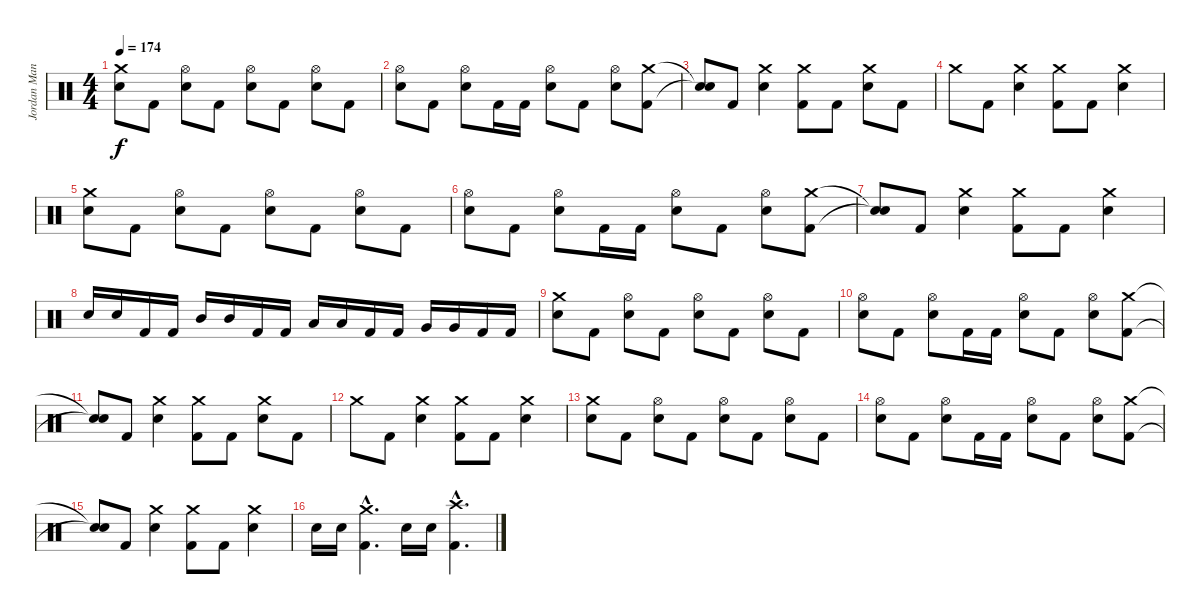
\track ("Jordan Manchino (Drums)" "Jordan Man") {instrument percussion}
\staff {score}
\articulation defaults
\ts (4 4)
\tempo 174
\clef neutral
\ks c
("Crash medium (hit)" "Snare (hit) 2").8{dy f} "Kick (hit) 2".8 ("Hi-Hat (open)" "Snare (hit) 2").8 "Kick (hit) 2".8 ("Hi-Hat (open)" "Snare (hit) 2").8 "Kick (hit) 2".8 ("Hi-Hat (open)" "Snare (hit) 2").8 "Kick (hit) 2".8 |
("Hi-Hat (open)" "Snare (hit) 2").8 "Kick (hit) 2".8 ("Hi-Hat (open)" "Snare (hit) 2").8 "Kick (hit) 2".16 "Kick (hit) 2".16 ("Hi-Hat (open)" "Snare (hit) 2").8 "Kick (hit) 2".8 ("Hi-Hat (open)" "Snare (hit) 2").8 ("Crash medium (hit)" "Kick (hit) 2").8 |
("Snare (hit)"{t} "Snare (hit)"{t}).8 "Kick (hit) 2".8 ("Crash medium (hit)" "Snare (hit) 2").4 ("Crash medium (hit)" "Kick (hit) 2").8 "Kick (hit) 2".8 ("Crash medium (hit)" "Snare (hit) 2").8 "Kick (hit) 2".8 |
"Crash medium (hit)".8 "Kick (hit) 2".8 ("Crash medium (hit)" "Snare (hit) 2").4 ("Crash medium (hit)" "Kick (hit) 2").8 "Kick (hit) 2".8 ("Crash medium (hit)" "Snare (hit) 2").4 |
("Crash medium (hit)" "Snare (hit) 2").8 "Kick (hit) 2".8 ("Hi-Hat (open)" "Snare (hit) 2").8 "Kick (hit) 2".8 ("Hi-Hat (open)" "Snare (hit) 2").8 "Kick (hit) 2".8 ("Hi-Hat (open)" "Snare (hit) 2").8 "Kick (hit) 2".8 |
("Hi-Hat (open)" "Snare (hit) 2").8 "Kick (hit) 2".8 ("Hi-Hat (open)" "Snare (hit) 2").8 "Kick (hit) 2".16 "Kick (hit) 2".16 ("Hi-Hat (open)" "Snare (hit) 2").8 "Kick (hit) 2".8 ("Hi-Hat (open)" "Snare (hit) 2").8 ("Crash medium (hit)" "Kick (hit) 2").8 |
("Snare (hit)"{t} "Snare (hit)"{t}).8 "Kick (hit) 2".8 ("Crash medium (hit)" "Snare (hit) 2").4 ("Crash medium (hit)" "Kick (hit) 2").8 "Kick (hit) 2".8 ("Crash medium (hit)" "Snare (hit) 2").4 |
"Snare (hit) 2".16 "Snare (hit) 2".16 "Kick (hit) 2".16 "Kick (hit) 2".16 "Mid Tom (hit)".16 "Mid Tom (hit)".16 "Kick (hit) 2".16 "Kick (hit) 2".16 "Low Tom (hit)".16 "Low Tom (hit)".16 "Kick (hit) 2".16 "Kick (hit) 2".16 "Very Low Tom (hit)".16 "Very Low Tom (hit)".16 "Kick (hit) 2".16 "Kick (hit) 2".16 |
("Crash medium (hit)" "Snare (hit) 2").8 "Kick (hit) 2".8 ("Hi-Hat (open)" "Snare (hit) 2").8 "Kick (hit) 2".8 ("Hi-Hat (open)" "Snare (hit) 2").8 "Kick (hit) 2".8 ("Hi-Hat (open)" "Snare (hit) 2").8 "Kick (hit) 2".8 |
("Hi-Hat (open)" "Snare (hit) 2").8 "Kick (hit) 2".8 ("Hi-Hat (open)" "Snare (hit) 2").8 "Kick (hit) 2".16 "Kick (hit) 2".16 ("Hi-Hat (open)" "Snare (hit) 2").8 "Kick (hit) 2".8 ("Hi-Hat (open)" "Snare (hit) 2").8 ("Crash medium (hit)" "Kick (hit) 2").8 |
("Snare (hit)"{t} "Snare (hit)"{t}).8 "Kick (hit) 2".8 ("Crash medium (hit)" "Snare (hit) 2").4 ("Crash medium (hit)" "Kick (hit) 2").8 "Kick (hit) 2".8 ("Crash medium (hit)" "Snare (hit) 2").8 "Kick (hit) 2".8 |
"Crash medium (hit)".8 "Kick (hit) 2".8 ("Crash medium (hit)" "Snare (hit) 2").4 ("Crash medium (hit)" "Kick (hit) 2").8 "Kick (hit) 2".8 ("Crash medium (hit)" "Snare (hit) 2").4 |
("Crash medium (hit)" "Snare (hit) 2").8 "Kick (hit) 2".8 ("Hi-Hat (open)" "Snare (hit) 2").8 "Kick (hit) 2".8 ("Hi-Hat (open)" "Snare (hit) 2").8 "Kick (hit) 2".8 ("Hi-Hat (open)" "Snare (hit) 2").8 "Kick (hit) 2".8 |
("Hi-Hat (open)" "Snare (hit) 2").8 "Kick (hit) 2".8 ("Hi-Hat (open)" "Snare (hit) 2").8 "Kick (hit) 2".16 "Kick (hit) 2".16 ("Hi-Hat (open)" "Snare (hit) 2").8 "Kick (hit) 2".8 ("Hi-Hat (open)" "Snare (hit) 2").8 ("Crash medium (hit)" "Kick (hit) 2").8 |
("Snare (hit)"{t} "Snare (hit)"{t}).8 "Kick (hit) 2".8 ("Crash medium (hit)" "Snare (hit) 2").4 ("Crash medium (hit)" "Kick (hit) 2").8 "Kick (hit) 2".8 ("Crash medium (hit)" "Snare (hit) 2").4 |
"Snare (hit) 2".16 "Snare (hit) 2".16 ("Crash medium (hit)"{hac} "Kick (hit) 2"{hac}).4{d} "Snare (hit) 2".16 "Snare (hit) 2".16 ("Crash high (hit)"{hac} "Kick (hit) 2"{hac}).4{d}
